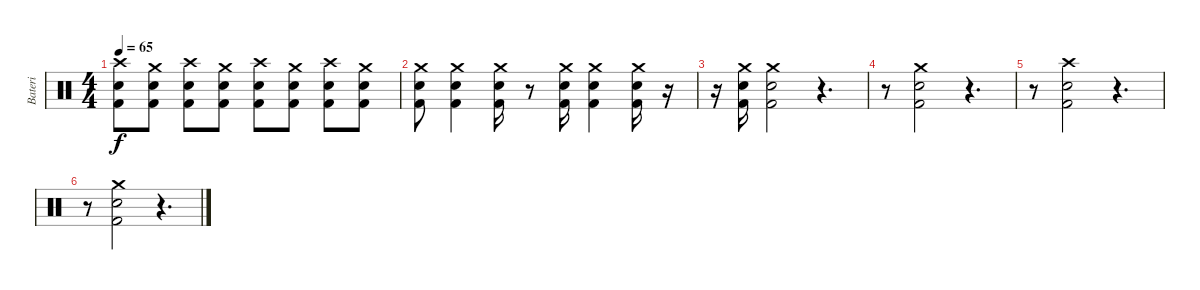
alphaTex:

\track ("Bateri" "Bateri") {instrument percussion}
\staff {score}
\articulation defaults
\ts (4 4)
\tempo 65
\clef neutral
\ks c
("Crash high (hit)" "Snare (hit) 2" "Kick (hit) 2").8{dy f} ("Crash medium (hit)" "Snare (hit) 2" "Kick (hit) 2").8 ("Crash high (hit)" "Snare (hit) 2" "Kick (hit) 2").8 ("Crash medium (hit)" "Snare (hit) 2" "Kick (hit) 2").8 ("Crash high (hit)" "Snare (hit) 2" "Kick (hit) 2").8 ("Crash medium (hit)" "Snare (hit) 2" "Kick (hit) 2").8 ("Crash high (hit)" "Snare (hit) 2" "Kick (hit) 2").8 ("Crash medium (hit)" "Snare (hit) 2" "Kick (hit) 2").8 |
("Crash medium (hit)" "Snare (hit) 2" "Kick (hit) 2").8 ("Crash medium (hit)" "Snare (hit) 2" "Kick (hit) 2").4 ("Crash medium (hit)" "Snare (hit) 2" "Kick (hit) 2").16 r.8 ("Crash medium (hit)" "Snare (hit) 2" "Kick (hit) 2").16 ("Crash medium (hit)" "Snare (hit) 2" "Kick (hit) 2").4 ("Crash medium (hit)" "Snare (hit) 2" "Kick (hit) 2").16 r.16 |
r.16 ("Crash medium (hit)" "Snare (hit) 2" "Kick (hit) 2").16 ("Crash medium (hit)" "Snare (hit) 2" "Kick (hit) 2").2 r.4{d} |
r.8 ("Crash medium (hit)" "Snare (hit) 2" "Kick (hit) 2").2 r.4{d} |
r.8 ("Crash high (hit)" "Snare (hit) 2" "Kick (hit) 2").2 r.4{d} |
r.8 ("Crash medium (hit)" "Snare (hit) 2" "Kick (hit) 2").2 r.4{d}
